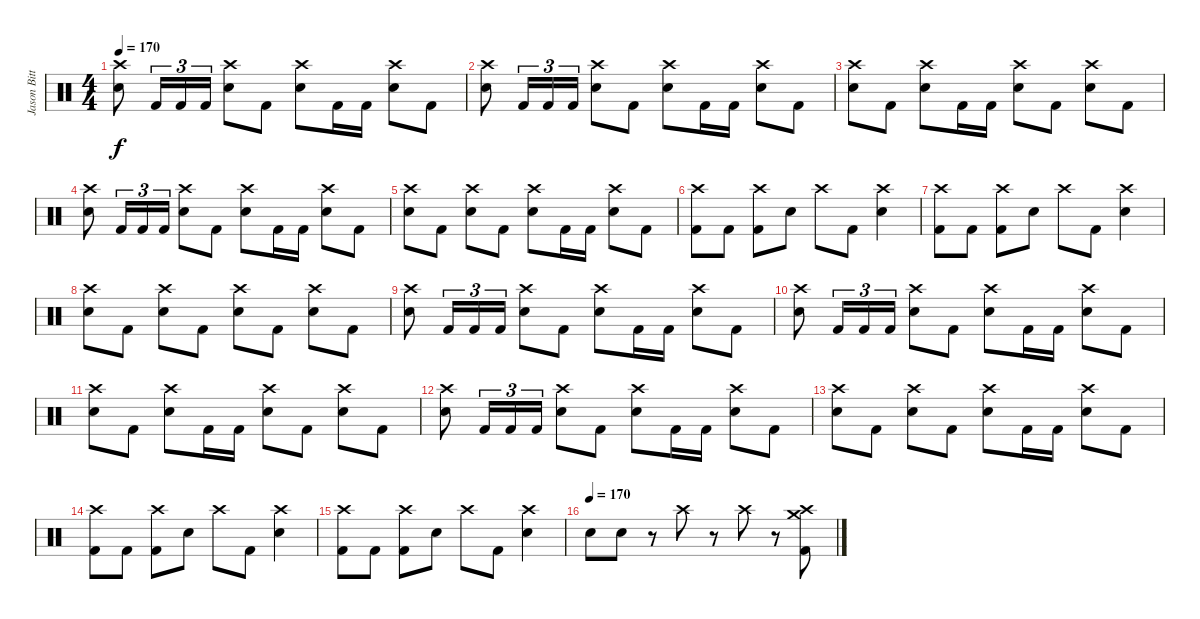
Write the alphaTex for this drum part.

\track ("Jason Bittner" "Jason Bitt") {instrument percussion}
\staff {score}
\articulation defaults
\ts (4 4)
\tempo 170
\clef neutral
\ks c
("Crash high (hit)" "Electric Snare (hit)").8{dy f} "Kick (hit) 2".16{tu (3 2)} "Kick (hit) 2".16{tu (3 2)} "Kick (hit) 2".16{tu (3 2)} ("Crash high (hit)" "Electric Snare (hit)").8 "Kick (hit) 2".8 ("Crash high (hit)" "Electric Snare (hit)").8 "Kick (hit) 2".16 "Kick (hit) 2".16 ("Crash high (hit)" "Electric Snare (hit)").8 "Kick (hit) 2".8 |
("Crash high (hit)" "Electric Snare (hit)").8 "Kick (hit) 2".16{tu (3 2)} "Kick (hit) 2".16{tu (3 2)} "Kick (hit) 2".16{tu (3 2)} ("Crash high (hit)" "Electric Snare (hit)").8 "Kick (hit) 2".8 ("Crash high (hit)" "Electric Snare (hit)").8 "Kick (hit) 2".16 "Kick (hit) 2".16 ("Crash high (hit)" "Electric Snare (hit)").8 "Kick (hit) 2".8 |
("Crash high (hit)" "Electric Snare (hit)").8 "Kick (hit) 2".8 ("Crash high (hit)" "Electric Snare (hit)").8 "Kick (hit) 2".16 "Kick (hit) 2".16 ("Crash high (hit)" "Electric Snare (hit)").8 "Kick (hit) 2".8 ("Crash high (hit)" "Electric Snare (hit)").8 "Kick (hit) 2".8 |
("Crash high (hit)" "Electric Snare (hit)").8 "Kick (hit) 2".16{tu (3 2)} "Kick (hit) 2".16{tu (3 2)} "Kick (hit) 2".16{tu (3 2)} ("Crash high (hit)" "Electric Snare (hit)").8 "Kick (hit) 2".8 ("Crash high (hit)" "Electric Snare (hit)").8 "Kick (hit) 2".16 "Kick (hit) 2".16 ("Crash high (hit)" "Electric Snare (hit)").8 "Kick (hit) 2".8 |
("Crash high (hit)" "Electric Snare (hit)").8 "Kick (hit) 2".8 ("Crash high (hit)" "Electric Snare (hit)").8 "Kick (hit) 2".8 ("Crash high (hit)" "Electric Snare (hit)").8 "Kick (hit) 2".16 "Kick (hit) 2".16 ("Crash high (hit)" "Electric Snare (hit)").8 "Kick (hit) 2".8 |
("Crash high (hit)" "Kick (hit) 2").8 "Kick (hit) 2".8 ("Crash high (hit)" "Kick (hit) 2").8 "Electric Snare (hit)".8 "Crash high (hit)".8 "Kick (hit) 2".8 ("Crash high (hit)" "Electric Snare (hit)").4 |
("Crash high (hit)" "Kick (hit) 2").8 "Kick (hit) 2".8 ("Crash high (hit)" "Kick (hit) 2").8 "Electric Snare (hit)".8 "Crash high (hit)".8 "Kick (hit) 2".8 ("Crash high (hit)" "Electric Snare (hit)").4 |
("Crash high (hit)" "Electric Snare (hit)").8 "Kick (hit) 2".8 ("Crash high (hit)" "Electric Snare (hit)").8 "Kick (hit) 2".8 ("Crash high (hit)" "Electric Snare (hit)").8 "Kick (hit) 2".8 ("Crash high (hit)" "Electric Snare (hit)").8 "Kick (hit) 2".8 |
("Crash high (hit)" "Electric Snare (hit)").8 "Kick (hit) 2".16{tu (3 2)} "Kick (hit) 2".16{tu (3 2)} "Kick (hit) 2".16{tu (3 2)} ("Crash high (hit)" "Electric Snare (hit)").8 "Kick (hit) 2".8 ("Crash high (hit)" "Electric Snare (hit)").8 "Kick (hit) 2".16 "Kick (hit) 2".16 ("Crash high (hit)" "Electric Snare (hit)").8 "Kick (hit) 2".8 |
("Crash high (hit)" "Electric Snare (hit)").8 "Kick (hit) 2".16{tu (3 2)} "Kick (hit) 2".16{tu (3 2)} "Kick (hit) 2".16{tu (3 2)} ("Crash high (hit)" "Electric Snare (hit)").8 "Kick (hit) 2".8 ("Crash high (hit)" "Electric Snare (hit)").8 "Kick (hit) 2".16 "Kick (hit) 2".16 ("Crash high (hit)" "Electric Snare (hit)").8 "Kick (hit) 2".8 |
("Crash high (hit)" "Electric Snare (hit)").8 "Kick (hit) 2".8 ("Crash high (hit)" "Electric Snare (hit)").8 "Kick (hit) 2".16 "Kick (hit) 2".16 ("Crash high (hit)" "Electric Snare (hit)").8 "Kick (hit) 2".8 ("Crash high (hit)" "Electric Snare (hit)").8 "Kick (hit) 2".8 |
("Crash high (hit)" "Electric Snare (hit)").8 "Kick (hit) 2".16{tu (3 2)} "Kick (hit) 2".16{tu (3 2)} "Kick (hit) 2".16{tu (3 2)} ("Crash high (hit)" "Electric Snare (hit)").8 "Kick (hit) 2".8 ("Crash high (hit)" "Electric Snare (hit)").8 "Kick (hit) 2".16 "Kick (hit) 2".16 ("Crash high (hit)" "Electric Snare (hit)").8 "Kick (hit) 2".8 |
("Crash high (hit)" "Electric Snare (hit)").8 "Kick (hit) 2".8 ("Crash high (hit)" "Electric Snare (hit)").8 "Kick (hit) 2".8 ("Crash high (hit)" "Electric Snare (hit)").8 "Kick (hit) 2".16 "Kick (hit) 2".16 ("Crash high (hit)" "Electric Snare (hit)").8 "Kick (hit) 2".8 |
("Crash high (hit)" "Kick (hit) 2").8 "Kick (hit) 2".8 ("Crash high (hit)" "Kick (hit) 2").8 "Electric Snare (hit)".8 "Crash high (hit)".8 "Kick (hit) 2".8 ("Crash high (hit)" "Electric Snare (hit)").4 |
("Crash high (hit)" "Kick (hit) 2").8 "Kick (hit) 2".8 ("Crash high (hit)" "Kick (hit) 2").8 "Electric Snare (hit)".8 "Crash high (hit)".8 "Kick (hit) 2".8 ("Crash high (hit)" "Electric Snare (hit)").4 |
\tempo (170)
"Electric Snare (hit)".8 "Electric Snare (hit)".8 r.8 "Crash high (hit)".8 r.8 "Crash high (hit)".8 r.8 ("Crash high (hit)" "Crash medium (hit)" "Kick (hit) 2").8
